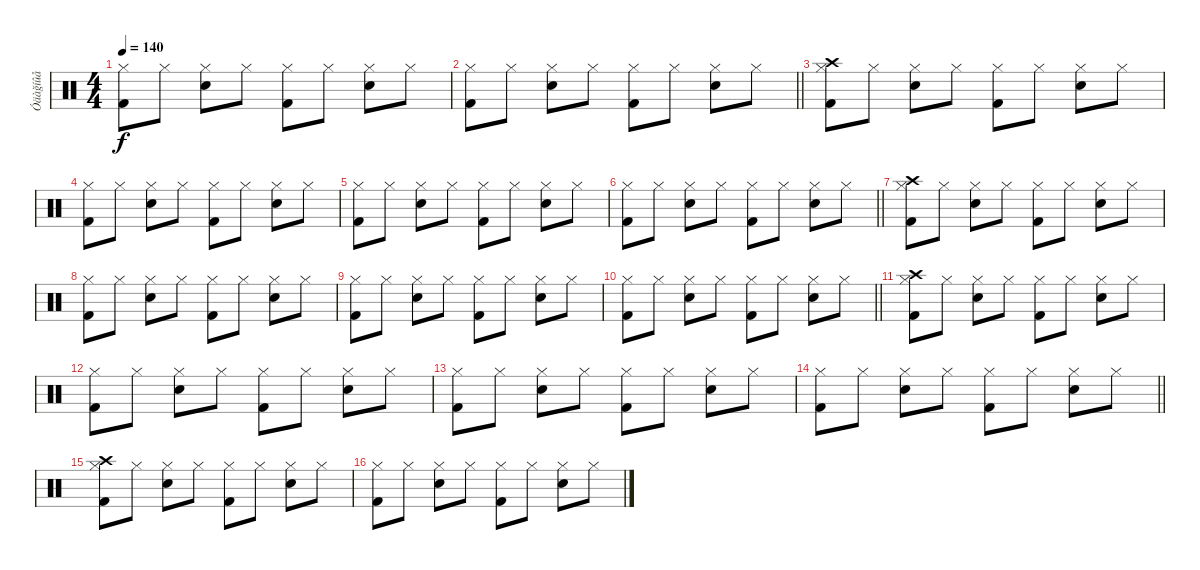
\track ("Óäàğíûå" "Óäàğíûå") {instrument percussion}
\staff {score}
\articulation defaults
\ts (4 4)
\tempo 140
\clef neutral
\ks c
("Hi-Hat (closed)" "Kick (hit) 2").8{dy f} "Hi-Hat (closed)".8 ("Hi-Hat (closed)" "Snare (hit) 2").8 "Hi-Hat (closed)".8 ("Hi-Hat (closed)" "Kick (hit) 2").8 "Hi-Hat (closed)".8 ("Hi-Hat (closed)" "Snare (hit) 2").8 "Hi-Hat (closed)".8 |
\barLineRight lightlight
("Hi-Hat (closed)" "Kick (hit) 2").8 "Hi-Hat (closed)".8 ("Hi-Hat (closed)" "Snare (hit) 2").8 "Hi-Hat (closed)".8 ("Hi-Hat (closed)" "Kick (hit) 2").8 "Hi-Hat (closed)".8 ("Hi-Hat (closed)" "Snare (hit) 2").8 "Hi-Hat (closed)".8 |
("Hi-Hat (closed)" "Kick (hit) 2" "Crash high (hit)").8 "Hi-Hat (closed)".8 ("Hi-Hat (closed)" "Snare (hit) 2").8 "Hi-Hat (closed)".8 ("Hi-Hat (closed)" "Kick (hit) 2").8 "Hi-Hat (closed)".8 ("Hi-Hat (closed)" "Snare (hit) 2").8 "Hi-Hat (closed)".8 |
("Hi-Hat (closed)" "Kick (hit) 2").8 "Hi-Hat (closed)".8 ("Hi-Hat (closed)" "Snare (hit) 2").8 "Hi-Hat (closed)".8 ("Hi-Hat (closed)" "Kick (hit) 2").8 "Hi-Hat (closed)".8 ("Hi-Hat (closed)" "Snare (hit) 2").8 "Hi-Hat (closed)".8 |
("Hi-Hat (closed)" "Kick (hit) 2").8 "Hi-Hat (closed)".8 ("Hi-Hat (closed)" "Snare (hit) 2").8 "Hi-Hat (closed)".8 ("Hi-Hat (closed)" "Kick (hit) 2").8 "Hi-Hat (closed)".8 ("Hi-Hat (closed)" "Snare (hit) 2").8 "Hi-Hat (closed)".8 |
\barLineRight lightlight
("Hi-Hat (closed)" "Kick (hit) 2").8 "Hi-Hat (closed)".8 ("Hi-Hat (closed)" "Snare (hit) 2").8 "Hi-Hat (closed)".8 ("Hi-Hat (closed)" "Kick (hit) 2").8 "Hi-Hat (closed)".8 ("Hi-Hat (closed)" "Snare (hit) 2").8 "Hi-Hat (closed)".8 |
("Hi-Hat (closed)" "Kick (hit) 2" "Crash high (hit)").8 "Hi-Hat (closed)".8 ("Hi-Hat (closed)" "Snare (hit) 2").8 "Hi-Hat (closed)".8 ("Hi-Hat (closed)" "Kick (hit) 2").8 "Hi-Hat (closed)".8 ("Hi-Hat (closed)" "Snare (hit) 2").8 "Hi-Hat (closed)".8 |
("Hi-Hat (closed)" "Kick (hit) 2").8 "Hi-Hat (closed)".8 ("Hi-Hat (closed)" "Snare (hit) 2").8 "Hi-Hat (closed)".8 ("Hi-Hat (closed)" "Kick (hit) 2").8 "Hi-Hat (closed)".8 ("Hi-Hat (closed)" "Snare (hit) 2").8 "Hi-Hat (closed)".8 |
("Hi-Hat (closed)" "Kick (hit) 2").8 "Hi-Hat (closed)".8 ("Hi-Hat (closed)" "Snare (hit) 2").8 "Hi-Hat (closed)".8 ("Hi-Hat (closed)" "Kick (hit) 2").8 "Hi-Hat (closed)".8 ("Hi-Hat (closed)" "Snare (hit) 2").8 "Hi-Hat (closed)".8 |
\barLineRight lightlight
("Hi-Hat (closed)" "Kick (hit) 2").8 "Hi-Hat (closed)".8 ("Hi-Hat (closed)" "Snare (hit) 2").8 "Hi-Hat (closed)".8 ("Hi-Hat (closed)" "Kick (hit) 2").8 "Hi-Hat (closed)".8 ("Hi-Hat (closed)" "Snare (hit) 2").8 "Hi-Hat (closed)".8 |
("Hi-Hat (closed)" "Kick (hit) 2" "Crash high (hit)").8 "Hi-Hat (closed)".8 ("Hi-Hat (closed)" "Snare (hit) 2").8 "Hi-Hat (closed)".8 ("Hi-Hat (closed)" "Kick (hit) 2").8 "Hi-Hat (closed)".8 ("Hi-Hat (closed)" "Snare (hit) 2").8 "Hi-Hat (closed)".8 |
("Hi-Hat (closed)" "Kick (hit) 2").8 "Hi-Hat (closed)".8 ("Hi-Hat (closed)" "Snare (hit) 2").8 "Hi-Hat (closed)".8 ("Hi-Hat (closed)" "Kick (hit) 2").8 "Hi-Hat (closed)".8 ("Hi-Hat (closed)" "Snare (hit) 2").8 "Hi-Hat (closed)".8 |
("Hi-Hat (closed)" "Kick (hit) 2").8 "Hi-Hat (closed)".8 ("Hi-Hat (closed)" "Snare (hit) 2").8 "Hi-Hat (closed)".8 ("Hi-Hat (closed)" "Kick (hit) 2").8 "Hi-Hat (closed)".8 ("Hi-Hat (closed)" "Snare (hit) 2").8 "Hi-Hat (closed)".8 |
\barLineRight lightlight
("Hi-Hat (closed)" "Kick (hit) 2").8 "Hi-Hat (closed)".8 ("Hi-Hat (closed)" "Snare (hit) 2").8 "Hi-Hat (closed)".8 ("Hi-Hat (closed)" "Kick (hit) 2").8 "Hi-Hat (closed)".8 ("Hi-Hat (closed)" "Snare (hit) 2").8 "Hi-Hat (closed)".8 |
("Hi-Hat (closed)" "Kick (hit) 2" "Crash high (hit)").8 "Hi-Hat (closed)".8 ("Hi-Hat (closed)" "Snare (hit) 2").8 "Hi-Hat (closed)".8 ("Hi-Hat (closed)" "Kick (hit) 2").8 "Hi-Hat (closed)".8 ("Hi-Hat (closed)" "Snare (hit) 2").8 "Hi-Hat (closed)".8 |
("Hi-Hat (closed)" "Kick (hit) 2").8 "Hi-Hat (closed)".8 ("Hi-Hat (closed)" "Snare (hit) 2").8 "Hi-Hat (closed)".8 ("Hi-Hat (closed)" "Kick (hit) 2").8 "Hi-Hat (closed)".8 ("Hi-Hat (closed)" "Snare (hit) 2").8 "Hi-Hat (closed)".8
